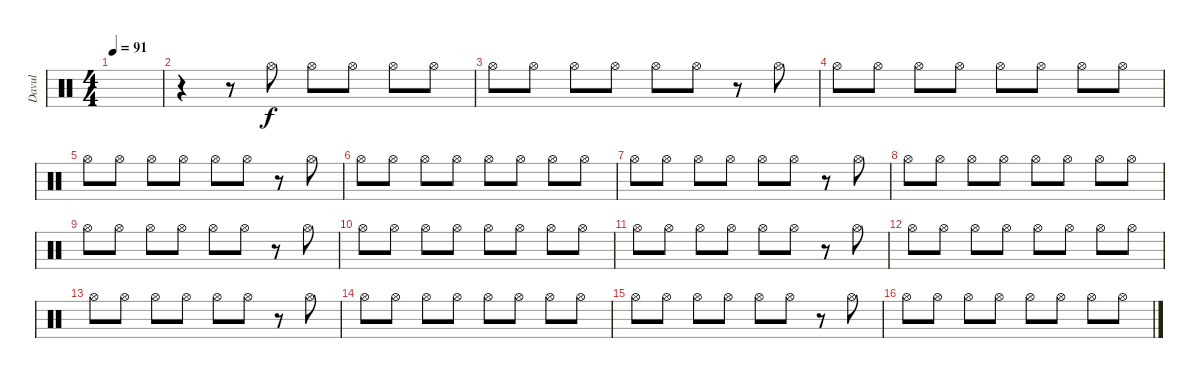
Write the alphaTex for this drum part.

\track ("Davul" "Davul") {instrument percussion}
\staff {score}
\articulation defaults
\ts (4 4)
\tempo 91
\clef neutral
\ks c
|
r.4 r.8 "Hi-Hat (open)".8 "Hi-Hat (open)".8 "Hi-Hat (open)".8 "Hi-Hat (open)".8 "Hi-Hat (open)".8 |
"Hi-Hat (open)".8 "Hi-Hat (open)".8 "Hi-Hat (open)".8 "Hi-Hat (open)".8 "Hi-Hat (open)".8 "Hi-Hat (open)".8 r.8 "Hi-Hat (open)".8 |
"Hi-Hat (open)".8 "Hi-Hat (open)".8 "Hi-Hat (open)".8 "Hi-Hat (open)".8 "Hi-Hat (open)".8 "Hi-Hat (open)".8 "Hi-Hat (open)".8 "Hi-Hat (open)".8 |
"Hi-Hat (open)".8 "Hi-Hat (open)".8 "Hi-Hat (open)".8 "Hi-Hat (open)".8 "Hi-Hat (open)".8 "Hi-Hat (open)".8 r.8 "Hi-Hat (open)".8 |
"Hi-Hat (open)".8 "Hi-Hat (open)".8 "Hi-Hat (open)".8 "Hi-Hat (open)".8 "Hi-Hat (open)".8 "Hi-Hat (open)".8 "Hi-Hat (open)".8 "Hi-Hat (open)".8 |
"Hi-Hat (open)".8 "Hi-Hat (open)".8 "Hi-Hat (open)".8 "Hi-Hat (open)".8 "Hi-Hat (open)".8 "Hi-Hat (open)".8 r.8 "Hi-Hat (open)".8 |
"Hi-Hat (open)".8 "Hi-Hat (open)".8 "Hi-Hat (open)".8 "Hi-Hat (open)".8 "Hi-Hat (open)".8 "Hi-Hat (open)".8 "Hi-Hat (open)".8 "Hi-Hat (open)".8 |
"Hi-Hat (open)".8 "Hi-Hat (open)".8 "Hi-Hat (open)".8 "Hi-Hat (open)".8 "Hi-Hat (open)".8 "Hi-Hat (open)".8 r.8 "Hi-Hat (open)".8 |
"Hi-Hat (open)".8 "Hi-Hat (open)".8 "Hi-Hat (open)".8 "Hi-Hat (open)".8 "Hi-Hat (open)".8 "Hi-Hat (open)".8 "Hi-Hat (open)".8 "Hi-Hat (open)".8 |
"Hi-Hat (open)".8 "Hi-Hat (open)".8 "Hi-Hat (open)".8 "Hi-Hat (open)".8 "Hi-Hat (open)".8 "Hi-Hat (open)".8 r.8 "Hi-Hat (open)".8 |
"Hi-Hat (open)".8 "Hi-Hat (open)".8 "Hi-Hat (open)".8 "Hi-Hat (open)".8 "Hi-Hat (open)".8 "Hi-Hat (open)".8 "Hi-Hat (open)".8 "Hi-Hat (open)".8 |
"Hi-Hat (open)".8 "Hi-Hat (open)".8 "Hi-Hat (open)".8 "Hi-Hat (open)".8 "Hi-Hat (open)".8 "Hi-Hat (open)".8 r.8 "Hi-Hat (open)".8 |
"Hi-Hat (open)".8 "Hi-Hat (open)".8 "Hi-Hat (open)".8 "Hi-Hat (open)".8 "Hi-Hat (open)".8 "Hi-Hat (open)".8 "Hi-Hat (open)".8 "Hi-Hat (open)".8 |
"Hi-Hat (open)".8 "Hi-Hat (open)".8 "Hi-Hat (open)".8 "Hi-Hat (open)".8 "Hi-Hat (open)".8 "Hi-Hat (open)".8 r.8 "Hi-Hat (open)".8 |
"Hi-Hat (open)".8 "Hi-Hat (open)".8 "Hi-Hat (open)".8 "Hi-Hat (open)".8 "Hi-Hat (open)".8 "Hi-Hat (open)".8 "Hi-Hat (open)".8 "Hi-Hat (open)".8
